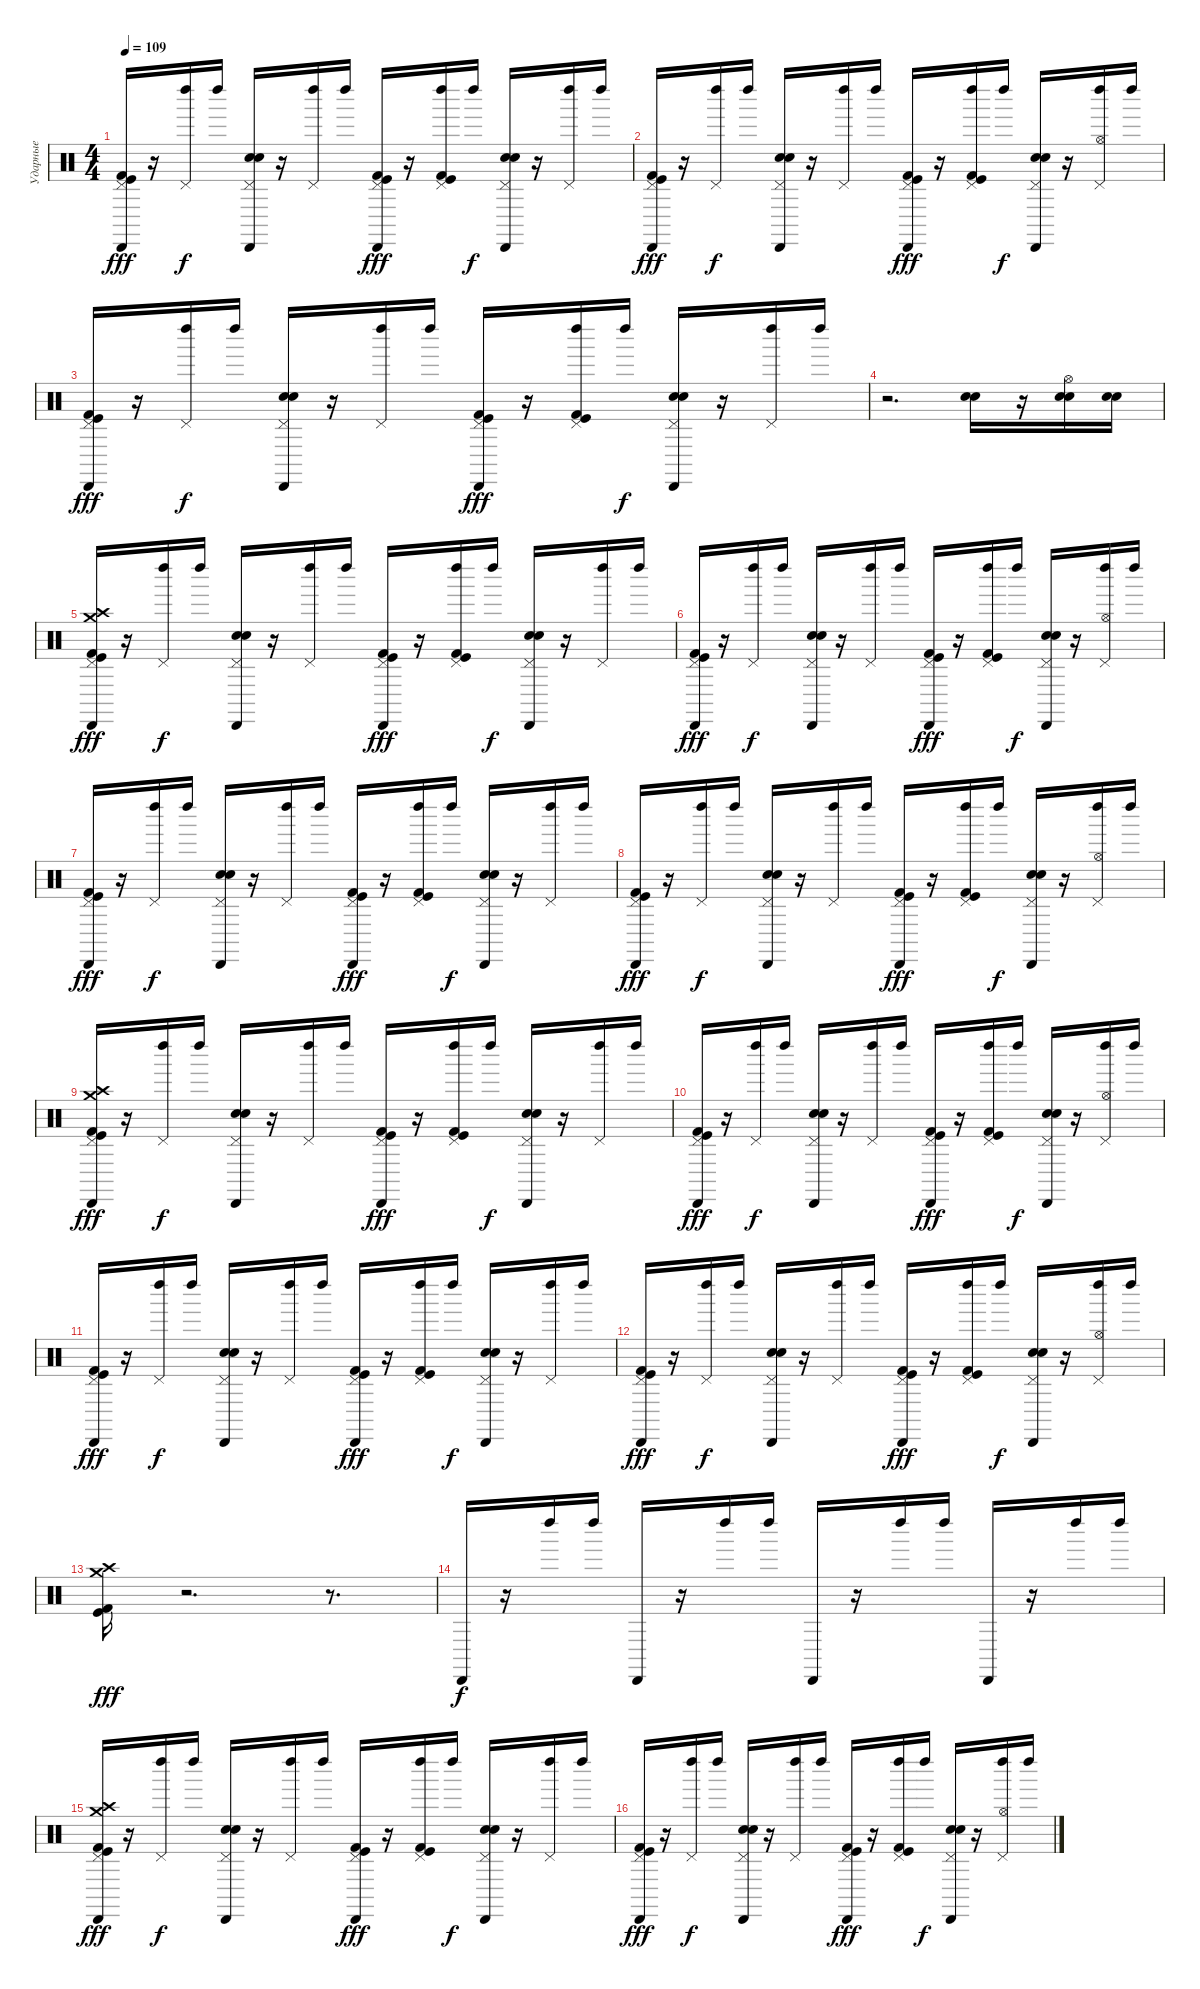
\track ("Ударные" "Ударные") {instrument percussion}
\staff {score}
\articulation defaults
\ts (4 4)
\tempo 109
\clef neutral
\ks c
("Cabasa (hit)" "Kick (hit) 2" "Kick (hit)" "Pedal Hi-Hat (hit)").16{dy fff} r.16 ("Left Maraca (hit)" "Pedal Hi-Hat (hit)").16{dy f} "Left Maraca (hit)".16 ("Cabasa (hit)" "Electric Snare (hit)" "Snare (hit) 2" "Pedal Hi-Hat (hit)").16 r.16 ("Left Maraca (hit)" "Pedal Hi-Hat (hit)").16 "Left Maraca (hit)".16 ("Cabasa (hit)" "Kick (hit)" "Kick (hit) 2" "Pedal Hi-Hat (hit)").16{dy fff} r.16 ("Left Maraca (hit)" "Kick (hit) 2" "Kick (hit)" "Pedal Hi-Hat (hit)").16 "Left Maraca (hit)".16{dy f} ("Cabasa (hit)" "Electric Snare (hit)" "Snare (hit) 2" "Pedal Hi-Hat (hit)").16 r.16 ("Left Maraca (hit)" "Pedal Hi-Hat (hit)").16 "Left Maraca (hit)".16 |
("Cabasa (hit)" "Kick (hit) 2" "Kick (hit)" "Pedal Hi-Hat (hit)").16{dy fff} r.16 ("Left Maraca (hit)" "Pedal Hi-Hat (hit)").16{dy f} "Left Maraca (hit)".16 ("Cabasa (hit)" "Snare (hit) 2" "Electric Snare (hit)" "Pedal Hi-Hat (hit)").16 r.16 ("Left Maraca (hit)" "Pedal Hi-Hat (hit)").16 "Left Maraca (hit)".16 ("Cabasa (hit)" "Kick (hit)" "Kick (hit) 2" "Pedal Hi-Hat (hit)").16{dy fff} r.16 ("Left Maraca (hit)" "Kick (hit) 2" "Kick (hit)" "Pedal Hi-Hat (hit)").16 "Left Maraca (hit)".16{dy f} ("Cabasa (hit)" "Electric Snare (hit)" "Snare (hit) 2" "Pedal Hi-Hat (hit)").16 r.16 ("Left Maraca (hit)" "Pedal Hi-Hat (hit)" "Hi-Hat (open)").16 "Left Maraca (hit)".16 |
("Cabasa (hit)" "Kick (hit) 2" "Kick (hit)" "Pedal Hi-Hat (hit)").16{dy fff} r.16 ("Left Maraca (hit)" "Pedal Hi-Hat (hit)").16{dy f} "Left Maraca (hit)".16 ("Cabasa (hit)" "Snare (hit) 2" "Electric Snare (hit)" "Pedal Hi-Hat (hit)").16 r.16 ("Left Maraca (hit)" "Pedal Hi-Hat (hit)").16 "Left Maraca (hit)".16 ("Cabasa (hit)" "Kick (hit)" "Kick (hit) 2" "Pedal Hi-Hat (hit)").16{dy fff} r.16 ("Left Maraca (hit)" "Kick (hit) 2" "Kick (hit)" "Pedal Hi-Hat (hit)").16 "Left Maraca (hit)".16{dy f} ("Cabasa (hit)" "Electric Snare (hit)" "Snare (hit) 2" "Pedal Hi-Hat (hit)").16 r.16 ("Left Maraca (hit)" "Pedal Hi-Hat (hit)").16 "Left Maraca (hit)".16 |
r.2{d} ("Snare (hit) 2" "Electric Snare (hit)").16 r.16 ("Snare (hit) 2" "Electric Snare (hit)" "Hi-Hat (open)").16 ("Snare (hit) 2" "Electric Snare (hit)").16 |
("Cabasa (hit)" "Kick (hit)" "Kick (hit) 2" "Pedal Hi-Hat (hit)" "Crash medium (hit)" "Crash high (hit)").16{dy fff} r.16 ("Left Maraca (hit)" "Pedal Hi-Hat (hit)").16{dy f} "Left Maraca (hit)".16 ("Cabasa (hit)" "Electric Snare (hit)" "Snare (hit) 2" "Pedal Hi-Hat (hit)").16 r.16 ("Left Maraca (hit)" "Pedal Hi-Hat (hit)").16 "Left Maraca (hit)".16 ("Cabasa (hit)" "Kick (hit)" "Kick (hit) 2" "Pedal Hi-Hat (hit)").16{dy fff} r.16 ("Left Maraca (hit)" "Kick (hit)" "Kick (hit) 2" "Pedal Hi-Hat (hit)").16 "Left Maraca (hit)".16{dy f} ("Cabasa (hit)" "Snare (hit) 2" "Electric Snare (hit)" "Pedal Hi-Hat (hit)").16 r.16 ("Left Maraca (hit)" "Pedal Hi-Hat (hit)").16 "Left Maraca (hit)".16 |
("Cabasa (hit)" "Kick (hit) 2" "Kick (hit)" "Pedal Hi-Hat (hit)").16{dy fff} r.16 ("Left Maraca (hit)" "Pedal Hi-Hat (hit)").16{dy f} "Left Maraca (hit)".16 ("Cabasa (hit)" "Electric Snare (hit)" "Snare (hit) 2" "Pedal Hi-Hat (hit)").16 r.16 ("Left Maraca (hit)" "Pedal Hi-Hat (hit)").16 "Left Maraca (hit)".16 ("Cabasa (hit)" "Kick (hit) 2" "Kick (hit)" "Pedal Hi-Hat (hit)").16{dy fff} r.16 ("Left Maraca (hit)" "Kick (hit) 2" "Kick (hit)" "Pedal Hi-Hat (hit)").16 "Left Maraca (hit)".16{dy f} ("Cabasa (hit)" "Snare (hit) 2" "Electric Snare (hit)" "Pedal Hi-Hat (hit)").16 r.16 ("Left Maraca (hit)" "Pedal Hi-Hat (hit)" "Hi-Hat (open)").16 "Left Maraca (hit)".16 |
("Cabasa (hit)" "Kick (hit)" "Kick (hit) 2" "Pedal Hi-Hat (hit)").16{dy fff} r.16 ("Left Maraca (hit)" "Pedal Hi-Hat (hit)").16{dy f} "Left Maraca (hit)".16 ("Cabasa (hit)" "Electric Snare (hit)" "Snare (hit) 2" "Pedal Hi-Hat (hit)").16 r.16 ("Left Maraca (hit)" "Pedal Hi-Hat (hit)").16 "Left Maraca (hit)".16 ("Cabasa (hit)" "Kick (hit)" "Kick (hit) 2" "Pedal Hi-Hat (hit)").16{dy fff} r.16 ("Left Maraca (hit)" "Kick (hit) 2" "Kick (hit)" "Pedal Hi-Hat (hit)").16 "Left Maraca (hit)".16{dy f} ("Cabasa (hit)" "Snare (hit) 2" "Electric Snare (hit)" "Pedal Hi-Hat (hit)").16 r.16 ("Left Maraca (hit)" "Pedal Hi-Hat (hit)").16 "Left Maraca (hit)".16 |
("Cabasa (hit)" "Kick (hit)" "Kick (hit) 2" "Pedal Hi-Hat (hit)").16{dy fff} r.16 ("Left Maraca (hit)" "Pedal Hi-Hat (hit)").16{dy f} "Left Maraca (hit)".16 ("Cabasa (hit)" "Snare (hit) 2" "Electric Snare (hit)" "Pedal Hi-Hat (hit)").16 r.16 ("Left Maraca (hit)" "Pedal Hi-Hat (hit)").16 "Left Maraca (hit)".16 ("Cabasa (hit)" "Kick (hit) 2" "Kick (hit)" "Pedal Hi-Hat (hit)").16{dy fff} r.16 ("Left Maraca (hit)" "Kick (hit) 2" "Kick (hit)" "Pedal Hi-Hat (hit)").16 "Left Maraca (hit)".16{dy f} ("Cabasa (hit)" "Snare (hit) 2" "Electric Snare (hit)" "Pedal Hi-Hat (hit)").16 r.16 ("Left Maraca (hit)" "Pedal Hi-Hat (hit)" "Hi-Hat (open)").16 "Left Maraca (hit)".16 |
("Cabasa (hit)" "Kick (hit) 2" "Kick (hit)" "Pedal Hi-Hat (hit)" "Crash medium (hit)" "Crash high (hit)").16{dy fff} r.16 ("Left Maraca (hit)" "Pedal Hi-Hat (hit)").16{dy f} "Left Maraca (hit)".16 ("Cabasa (hit)" "Electric Snare (hit)" "Snare (hit) 2" "Pedal Hi-Hat (hit)").16 r.16 ("Left Maraca (hit)" "Pedal Hi-Hat (hit)").16 "Left Maraca (hit)".16 ("Cabasa (hit)" "Kick (hit) 2" "Kick (hit)" "Pedal Hi-Hat (hit)").16{dy fff} r.16 ("Left Maraca (hit)" "Kick (hit) 2" "Kick (hit)" "Pedal Hi-Hat (hit)").16 "Left Maraca (hit)".16{dy f} ("Cabasa (hit)" "Snare (hit) 2" "Electric Snare (hit)" "Pedal Hi-Hat (hit)").16 r.16 ("Left Maraca (hit)" "Pedal Hi-Hat (hit)").16 "Left Maraca (hit)".16 |
("Cabasa (hit)" "Kick (hit) 2" "Kick (hit)" "Pedal Hi-Hat (hit)").16{dy fff} r.16 ("Left Maraca (hit)" "Pedal Hi-Hat (hit)").16{dy f} "Left Maraca (hit)".16 ("Cabasa (hit)" "Snare (hit) 2" "Electric Snare (hit)" "Pedal Hi-Hat (hit)").16 r.16 ("Left Maraca (hit)" "Pedal Hi-Hat (hit)").16 "Left Maraca (hit)".16 ("Cabasa (hit)" "Kick (hit)" "Kick (hit) 2" "Pedal Hi-Hat (hit)").16{dy fff} r.16 ("Left Maraca (hit)" "Kick (hit) 2" "Kick (hit)" "Pedal Hi-Hat (hit)").16 "Left Maraca (hit)".16{dy f} ("Cabasa (hit)" "Snare (hit) 2" "Electric Snare (hit)" "Pedal Hi-Hat (hit)").16 r.16 ("Left Maraca (hit)" "Pedal Hi-Hat (hit)" "Hi-Hat (open)").16 "Left Maraca (hit)".16 |
("Cabasa (hit)" "Kick (hit)" "Kick (hit) 2" "Pedal Hi-Hat (hit)").16{dy fff} r.16 ("Left Maraca (hit)" "Pedal Hi-Hat (hit)").16{dy f} "Left Maraca (hit)".16 ("Cabasa (hit)" "Snare (hit) 2" "Electric Snare (hit)" "Pedal Hi-Hat (hit)").16 r.16 ("Left Maraca (hit)" "Pedal Hi-Hat (hit)").16 "Left Maraca (hit)".16 ("Cabasa (hit)" "Kick (hit)" "Kick (hit) 2" "Pedal Hi-Hat (hit)").16{dy fff} r.16 ("Left Maraca (hit)" "Kick (hit) 2" "Kick (hit)" "Pedal Hi-Hat (hit)").16 "Left Maraca (hit)".16{dy f} ("Cabasa (hit)" "Snare (hit) 2" "Electric Snare (hit)" "Pedal Hi-Hat (hit)").16 r.16 ("Left Maraca (hit)" "Pedal Hi-Hat (hit)").16 "Left Maraca (hit)".16 |
("Cabasa (hit)" "Kick (hit) 2" "Kick (hit)" "Pedal Hi-Hat (hit)").16{dy fff} r.16 ("Left Maraca (hit)" "Pedal Hi-Hat (hit)").16{dy f} "Left Maraca (hit)".16 ("Cabasa (hit)" "Snare (hit) 2" "Electric Snare (hit)" "Pedal Hi-Hat (hit)").16 r.16 ("Left Maraca (hit)" "Pedal Hi-Hat (hit)").16 "Left Maraca (hit)".16 ("Cabasa (hit)" "Kick (hit)" "Kick (hit) 2" "Pedal Hi-Hat (hit)").16{dy fff} r.16 ("Left Maraca (hit)" "Kick (hit) 2" "Kick (hit)" "Pedal Hi-Hat (hit)").16 "Left Maraca (hit)".16{dy f} ("Cabasa (hit)" "Snare (hit) 2" "Electric Snare (hit)" "Pedal Hi-Hat (hit)").16 r.16 ("Left Maraca (hit)" "Pedal Hi-Hat (hit)" "Hi-Hat (open)").16 "Left Maraca (hit)".16 |
("Kick (hit) 2" "Kick (hit)" "Crash medium (hit)" "Crash high (hit)").16{dy fff} r.2{d} r.8{d} |
"Cabasa (hit)".16{dy f} r.16 "Left Maraca (hit)".16 "Left Maraca (hit)".16 "Cabasa (hit)".16 r.16 "Left Maraca (hit)".16 "Left Maraca (hit)".16 "Cabasa (hit)".16 r.16 "Left Maraca (hit)".16 "Left Maraca (hit)".16 "Cabasa (hit)".16 r.16 "Left Maraca (hit)".16 "Left Maraca (hit)".16 |
("Cabasa (hit)" "Kick (hit) 2" "Kick (hit)" "Pedal Hi-Hat (hit)" "Crash high (hit)" "Crash medium (hit)").16{dy fff} r.16 ("Left Maraca (hit)" "Pedal Hi-Hat (hit)").16{dy f} "Left Maraca (hit)".16 ("Cabasa (hit)" "Snare (hit) 2" "Electric Snare (hit)" "Pedal Hi-Hat (hit)").16 r.16 ("Left Maraca (hit)" "Pedal Hi-Hat (hit)").16 "Left Maraca (hit)".16 ("Cabasa (hit)" "Kick (hit)" "Kick (hit) 2" "Pedal Hi-Hat (hit)").16{dy fff} r.16 ("Left Maraca (hit)" "Kick (hit)" "Kick (hit) 2" "Pedal Hi-Hat (hit)").16 "Left Maraca (hit)".16{dy f} ("Cabasa (hit)" "Snare (hit) 2" "Electric Snare (hit)" "Pedal Hi-Hat (hit)").16 r.16 ("Left Maraca (hit)" "Pedal Hi-Hat (hit)").16 "Left Maraca (hit)".16 |
("Cabasa (hit)" "Kick (hit)" "Kick (hit) 2" "Pedal Hi-Hat (hit)").16{dy fff} r.16 ("Left Maraca (hit)" "Pedal Hi-Hat (hit)").16{dy f} "Left Maraca (hit)".16 ("Cabasa (hit)" "Snare (hit) 2" "Electric Snare (hit)" "Pedal Hi-Hat (hit)").16 r.16 ("Left Maraca (hit)" "Pedal Hi-Hat (hit)").16 "Left Maraca (hit)".16 ("Cabasa (hit)" "Kick (hit)" "Kick (hit) 2" "Pedal Hi-Hat (hit)").16{dy fff} r.16 ("Left Maraca (hit)" "Kick (hit)" "Kick (hit) 2" "Pedal Hi-Hat (hit)").16 "Left Maraca (hit)".16{dy f} ("Cabasa (hit)" "Snare (hit) 2" "Electric Snare (hit)" "Pedal Hi-Hat (hit)").16 r.16 ("Left Maraca (hit)" "Pedal Hi-Hat (hit)" "Hi-Hat (open)").16 "Left Maraca (hit)".16
